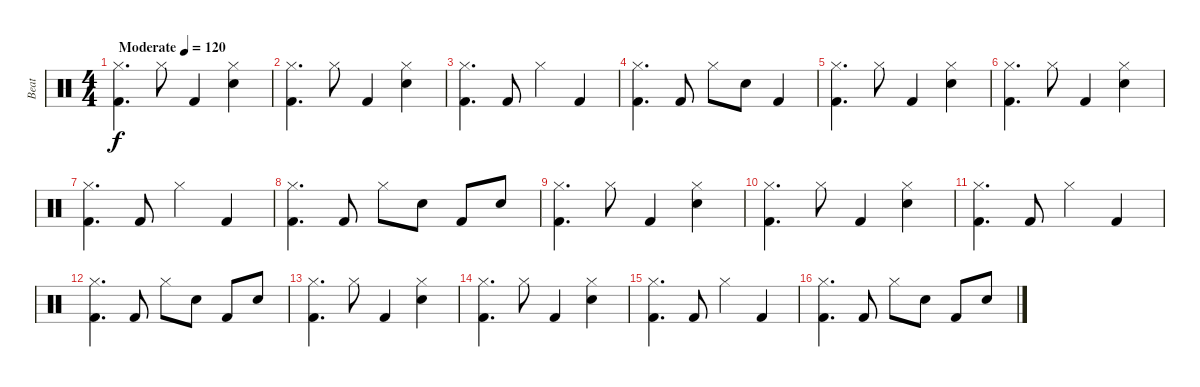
\track ("Beat" "Beat") {instrument percussion}
\staff {score}
\articulation defaults
\ts (4 4)
\tempo (120 "Moderate")
\clef neutral
\ks c
("Hi-Hat (closed)" "Kick (hit) 2").4{d dy f} "Hi-Hat (closed)".8 "Kick (hit) 2".4 ("Hi-Hat (closed)" "Snare (hit) 2").4 |
("Hi-Hat (closed)" "Kick (hit) 2").4{d} "Hi-Hat (closed)".8 "Kick (hit) 2".4 ("Hi-Hat (closed)" "Snare (hit) 2").4 |
("Hi-Hat (closed)" "Kick (hit) 2").4{d} "Kick (hit) 2".8 "Hi-Hat (closed)".4 "Kick (hit) 2".4 |
("Hi-Hat (closed)" "Kick (hit) 2").4{d} "Kick (hit) 2".8 "Hi-Hat (closed)".8 "Snare (hit) 2".8 "Kick (hit) 2".4 |
("Hi-Hat (closed)" "Kick (hit) 2").4{d} "Hi-Hat (closed)".8 "Kick (hit) 2".4 ("Hi-Hat (closed)" "Snare (hit) 2").4 |
("Hi-Hat (closed)" "Kick (hit) 2").4{d} "Hi-Hat (closed)".8 "Kick (hit) 2".4 ("Hi-Hat (closed)" "Snare (hit) 2").4 |
("Hi-Hat (closed)" "Kick (hit) 2").4{d} "Kick (hit) 2".8 "Hi-Hat (closed)".4 "Kick (hit) 2".4 |
("Hi-Hat (closed)" "Kick (hit) 2").4{d} "Kick (hit) 2".8 "Hi-Hat (closed)".8 "Snare (hit) 2".8 "Kick (hit) 2".8 "Snare (hit) 2".8 |
("Hi-Hat (closed)" "Kick (hit) 2").4{d} "Hi-Hat (closed)".8 "Kick (hit) 2".4 ("Hi-Hat (closed)" "Snare (hit) 2").4 |
("Hi-Hat (closed)" "Kick (hit) 2").4{d} "Hi-Hat (closed)".8 "Kick (hit) 2".4 ("Hi-Hat (closed)" "Snare (hit) 2").4 |
("Hi-Hat (closed)" "Kick (hit) 2").4{d} "Kick (hit) 2".8 "Hi-Hat (closed)".4 "Kick (hit) 2".4 |
("Hi-Hat (closed)" "Kick (hit) 2").4{d} "Kick (hit) 2".8 "Hi-Hat (closed)".8 "Snare (hit) 2".8 "Kick (hit) 2".8 "Snare (hit) 2".8 |
("Hi-Hat (closed)" "Kick (hit) 2").4{d} "Hi-Hat (closed)".8 "Kick (hit) 2".4 ("Hi-Hat (closed)" "Snare (hit) 2").4 |
("Hi-Hat (closed)" "Kick (hit) 2").4{d} "Hi-Hat (closed)".8 "Kick (hit) 2".4 ("Hi-Hat (closed)" "Snare (hit) 2").4 |
("Hi-Hat (closed)" "Kick (hit) 2").4{d} "Kick (hit) 2".8 "Hi-Hat (closed)".4 "Kick (hit) 2".4 |
("Hi-Hat (closed)" "Kick (hit) 2").4{d} "Kick (hit) 2".8 "Hi-Hat (closed)".8 "Snare (hit) 2".8 "Kick (hit) 2".8 "Snare (hit) 2".8
